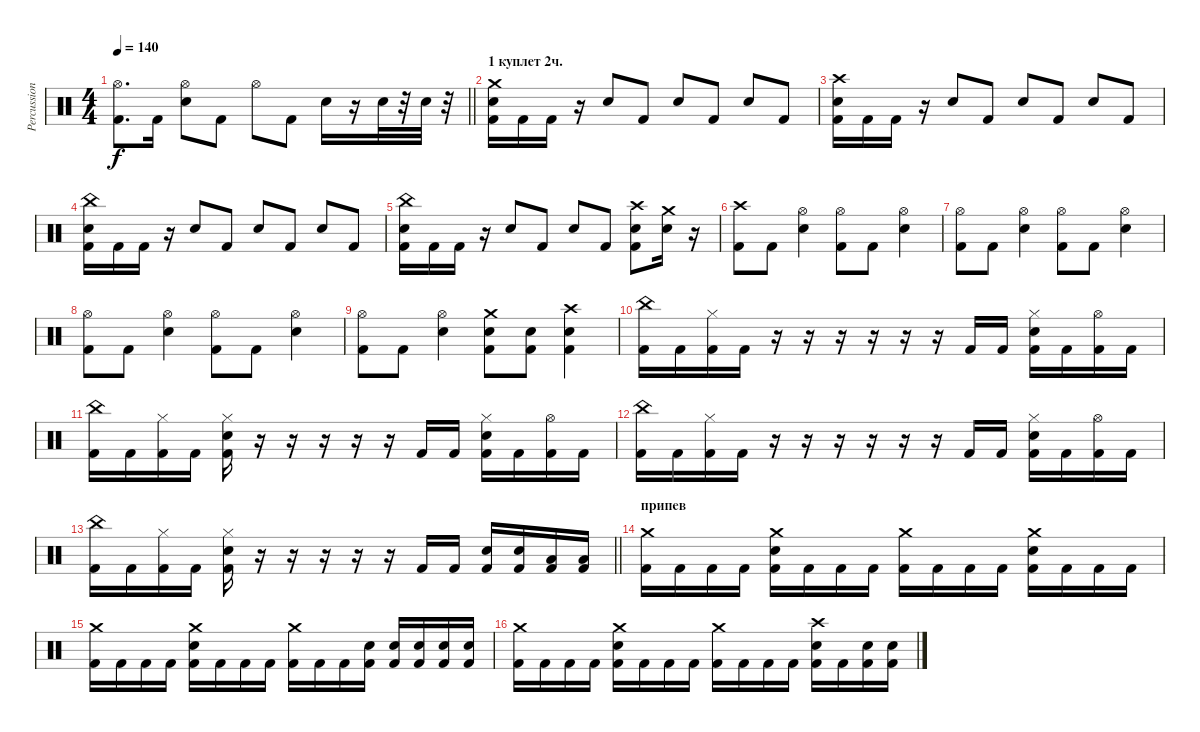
\track ("Percussion" "Percussion") {instrument percussion}
\staff {score}
\articulation defaults
\ts (4 4)
\tempo 140
\clef neutral
\barLineRight lightlight
\ks c
("Hi-Hat (open)" "Kick (hit) 2").8{d dy f} "Kick (hit) 2".16 ("Hi-Hat (open)" "Snare (hit) 2").8 "Kick (hit) 2".8 "Hi-Hat (open)".8 "Kick (hit) 2".8 "Snare (hit) 2".16 r.16 "Snare (hit) 2".32 r.32 "Snare (hit) 2".32 r.32 |
\section ("" "1 куплет 2ч.")
("Crash medium (hit)" "Snare (hit) 2" "Kick (hit) 2").16 "Kick (hit) 2".16 "Kick (hit) 2".16 r.16 "Snare (hit) 2".8 "Kick (hit) 2".8 "Snare (hit) 2".8 "Kick (hit) 2".8 "Snare (hit) 2".8 "Kick (hit) 2".8 |
("Crash high (hit)" "Snare (hit) 2" "Kick (hit) 2").16 "Kick (hit) 2".16 "Kick (hit) 2".16 r.16 "Snare (hit) 2".8 "Kick (hit) 2".8 "Snare (hit) 2".8 "Kick (hit) 2".8 "Snare (hit) 2".8 "Kick (hit) 2".8 |
("China (hit)" "Snare (hit) 2" "Kick (hit) 2").16 "Kick (hit) 2".16 "Kick (hit) 2".16 r.16 "Snare (hit) 2".8 "Kick (hit) 2".8 "Snare (hit) 2".8 "Kick (hit) 2".8 "Snare (hit) 2".8 "Kick (hit) 2".8 |
("China (hit)" "Snare (hit) 2" "Kick (hit) 2").16 "Kick (hit) 2".16 "Kick (hit) 2".16 r.16 "Snare (hit) 2".8 "Kick (hit) 2".8 "Snare (hit) 2".8 "Kick (hit) 2".8 ("Crash high (hit)" "Kick (hit) 2" "Snare (hit) 2").8 ("Crash medium (hit)" "Snare (hit) 2").16 r.16 |
("Crash high (hit)" "Kick (hit) 2").8 "Kick (hit) 2".8 ("Hi-Hat (open)" "Snare (hit) 2").4 ("Hi-Hat (open)" "Kick (hit) 2").8 "Kick (hit) 2".8 ("Hi-Hat (open)" "Snare (hit) 2").4 |
("Hi-Hat (open)" "Kick (hit) 2").8 "Kick (hit) 2".8 ("Hi-Hat (open)" "Snare (hit) 2").4 ("Hi-Hat (open)" "Kick (hit) 2").8 "Kick (hit) 2".8 ("Hi-Hat (open)" "Snare (hit) 2").4 |
("Hi-Hat (open)" "Kick (hit) 2").8 "Kick (hit) 2".8 ("Hi-Hat (open)" "Snare (hit) 2").4 ("Hi-Hat (open)" "Kick (hit) 2").8 "Kick (hit) 2".8 ("Hi-Hat (open)" "Snare (hit) 2").4 |
("Hi-Hat (open)" "Kick (hit) 2").8 "Kick (hit) 2".8 ("Hi-Hat (open)" "Snare (hit) 2").4 ("Crash medium (hit)" "Snare (hit) 2" "Kick (hit) 2").8 ("Snare (hit) 2" "Kick (hit) 2").8 ("Crash high (hit)" "Snare (hit) 2" "Kick (hit) 2").4 |
("China (hit)" "Kick (hit) 2").16 "Kick (hit) 2".16 ("Hi-Hat (closed)" "Kick (hit) 2").16 "Kick (hit) 2".16 r.16 r.16 r.16 r.16 r.16 r.16 "Kick (hit) 2".16 "Kick (hit) 2".16 ("Hi-Hat (closed)" "Snare (hit) 2" "Kick (hit) 2").16 "Kick (hit) 2".16 ("Hi-Hat (open)" "Kick (hit) 2").16 "Kick (hit) 2".16 |
("China (hit)" "Kick (hit) 2").16 "Kick (hit) 2".16 ("Hi-Hat (closed)" "Kick (hit) 2").16 "Kick (hit) 2".16 ("Hi-Hat (closed)" "Snare (hit) 2" "Kick (hit) 2").16 r.16 r.16 r.16 r.16 r.16 "Kick (hit) 2".16 "Kick (hit) 2".16 ("Hi-Hat (closed)" "Snare (hit) 2" "Kick (hit) 2").16 "Kick (hit) 2".16 ("Hi-Hat (open)" "Kick (hit) 2").16 "Kick (hit) 2".16 |
("China (hit)" "Kick (hit) 2").16 "Kick (hit) 2".16 ("Hi-Hat (closed)" "Kick (hit) 2").16 "Kick (hit) 2".16 r.16 r.16 r.16 r.16 r.16 r.16 "Kick (hit) 2".16 "Kick (hit) 2".16 ("Hi-Hat (closed)" "Snare (hit) 2" "Kick (hit) 2").16 "Kick (hit) 2".16 ("Hi-Hat (open)" "Kick (hit) 2").16 "Kick (hit) 2".16 |
\barLineRight lightlight
("China (hit)" "Kick (hit) 2").16 "Kick (hit) 2".16 ("Hi-Hat (closed)" "Kick (hit) 2").16 "Kick (hit) 2".16 ("Hi-Hat (closed)" "Snare (hit) 2" "Kick (hit) 2").16 r.16 r.16 r.16 r.16 r.16 "Kick (hit) 2".16 "Kick (hit) 2".16 ("Snare (hit) 2" "Kick (hit) 2").16 ("Snare (hit) 2" "Kick (hit) 2").16 ("Low Tom (hit)" "Kick (hit) 2").16 ("Low Tom (hit)" "Kick (hit) 2").16 |
\section ("" "припев")
("Crash medium (hit)" "Kick (hit) 2").16 "Kick (hit) 2".16 "Kick (hit) 2".16 "Kick (hit) 2".16 ("Crash medium (hit)" "Snare (hit) 2" "Kick (hit) 2").16 "Kick (hit) 2".16 "Kick (hit) 2".16 "Kick (hit) 2".16 ("Crash medium (hit)" "Kick (hit) 2").16 "Kick (hit) 2".16 "Kick (hit) 2".16 "Kick (hit) 2".16 ("Crash medium (hit)" "Snare (hit) 2" "Kick (hit) 2").16 "Kick (hit) 2".16 "Kick (hit) 2".16 "Kick (hit) 2".16 |
("Crash medium (hit)" "Kick (hit) 2").16 "Kick (hit) 2".16 "Kick (hit) 2".16 "Kick (hit) 2".16 ("Crash medium (hit)" "Snare (hit) 2" "Kick (hit) 2").16 "Kick (hit) 2".16 "Kick (hit) 2".16 "Kick (hit) 2".16 ("Crash medium (hit)" "Kick (hit) 2").16 "Kick (hit) 2".16 "Kick (hit) 2".16 ("Snare (hit) 2" "Kick (hit) 2").16 ("Snare (hit) 2" "Kick (hit) 2").16 ("Snare (hit) 2" "Kick (hit) 2").16 ("Snare (hit) 2" "Kick (hit) 2").16 ("Snare (hit) 2" "Kick (hit) 2").16 |
("Crash medium (hit)" "Kick (hit) 2").16 "Kick (hit) 2".16 "Kick (hit) 2".16 "Kick (hit) 2".16 ("Crash medium (hit)" "Snare (hit) 2" "Kick (hit) 2").16 "Kick (hit) 2".16 "Kick (hit) 2".16 "Kick (hit) 2".16 ("Crash medium (hit)" "Kick (hit) 2").16 "Kick (hit) 2".16 "Kick (hit) 2".16 "Kick (hit) 2".16 ("Crash high (hit)" "Snare (hit) 2" "Kick (hit) 2").16 "Kick (hit) 2".16 ("Snare (hit) 2" "Kick (hit) 2").16 ("Snare (hit) 2" "Kick (hit) 2").16
